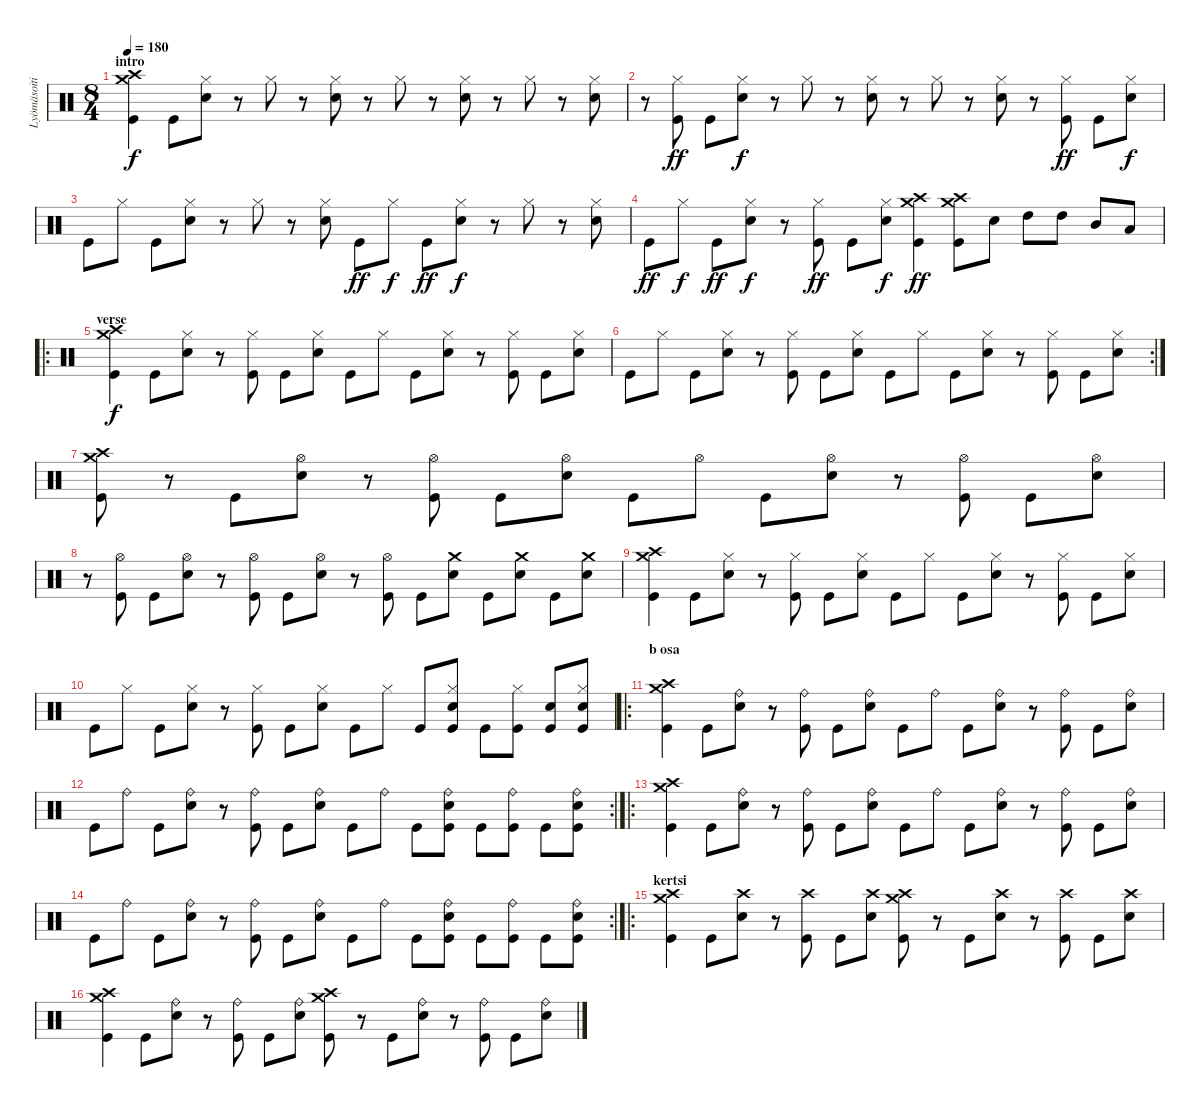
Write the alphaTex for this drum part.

\track ("Lyömäsoitin" "Lyömäsoiti") {instrument percussion}
\staff {score}
\articulation defaults
\ts (8 4)
\section ("" "intro")
\tempo 180
\clef neutral
\ks c
("Crash medium (hit)" "Crash high (hit)" "Kick (hit)").4{dy f} "Kick (hit)".8 ("Hi-Hat (closed)" "Snare (hit) 2").8 r.8 "Hi-Hat (closed)".8 r.8 ("Hi-Hat (closed)" "Snare (hit) 2").8 r.8 "Hi-Hat (closed)".8 r.8 ("Hi-Hat (closed)" "Snare (hit) 2").8 r.8 "Hi-Hat (closed)".8 r.8 ("Hi-Hat (closed)" "Snare (hit) 2").8 |
r.8 ("Hi-Hat (closed)" "Kick (hit)").8{dy ff} "Kick (hit)".8 ("Hi-Hat (closed)" "Snare (hit) 2").8{dy f} r.8 "Hi-Hat (closed)".8 r.8 ("Hi-Hat (closed)" "Snare (hit) 2").8 r.8 "Hi-Hat (closed)".8 r.8 ("Hi-Hat (closed)" "Snare (hit) 2").8 r.8 ("Hi-Hat (closed)" "Kick (hit)").8{dy ff} "Kick (hit)".8 ("Hi-Hat (closed)" "Snare (hit) 2").8{dy f} |
"Kick (hit)".8 "Hi-Hat (closed)".8 "Kick (hit)".8 ("Hi-Hat (closed)" "Snare (hit) 2").8 r.8 "Hi-Hat (closed)".8 r.8 ("Hi-Hat (closed)" "Snare (hit) 2").8 "Kick (hit)".8{dy ff} "Hi-Hat (closed)".8{dy f} "Kick (hit)".8{dy ff} ("Hi-Hat (closed)" "Snare (hit) 2").8{dy f} r.8 "Hi-Hat (closed)".8 r.8 ("Hi-Hat (closed)" "Snare (hit) 2").8 |
"Kick (hit)".8{dy ff} "Hi-Hat (closed)".8{dy f} "Kick (hit)".8{dy ff} ("Hi-Hat (closed)" "Snare (hit) 2").8{dy f} r.8 ("Hi-Hat (closed)" "Kick (hit)").8{dy ff} "Kick (hit)".8 ("Hi-Hat (closed)" "Snare (hit) 2").8{dy f} ("Crash medium (hit)" "Crash high (hit)" "Kick (hit)").4{dy ff} ("Crash medium (hit)" "Crash high (hit)" "Kick (hit)").8 "Snare (hit) 2".8 "High Tom (hit)".8 "High Tom (hit)".8 "Mid Tom (hit)".8 "Low Tom (hit)".8 |
\ro
\section ("" "verse")
("Crash medium (hit)" "Crash high (hit)" "Kick (hit)").4{dy f} "Kick (hit)".8 ("Hi-Hat (closed)" "Snare (hit) 2").8 r.8 ("Hi-Hat (closed)" "Kick (hit)").8 "Kick (hit)".8 ("Hi-Hat (closed)" "Snare (hit) 2").8 "Kick (hit)".8 "Hi-Hat (closed)".8 "Kick (hit)".8 ("Hi-Hat (closed)" "Snare (hit) 2").8 r.8 ("Hi-Hat (closed)" "Kick (hit)").8 "Kick (hit)".8 ("Hi-Hat (closed)" "Snare (hit) 2").8 |
\rc 2 "Kick (hit)".8 "Hi-Hat (closed)".8 "Kick (hit)".8
("Hi-Hat (closed)" "Snare (hit) 2").8 r.8 ("Hi-Hat (closed)" "Kick (hit)").8 "Kick (hit)".8 ("Hi-Hat (closed)" "Snare (hit) 2").8 "Kick (hit)".8 "Hi-Hat (closed)".8 "Kick (hit)".8 ("Hi-Hat (closed)" "Snare (hit) 2").8 r.8 ("Hi-Hat (closed)" "Kick (hit)").8 "Kick (hit)".8 ("Hi-Hat (closed)" "Snare (hit) 2").8 |
("Crash medium (hit)" "Crash high (hit)" "Kick (hit)").8 r.8 "Kick (hit)".8 ("Hi-Hat (open)" "Snare (hit) 2").8 r.8 ("Hi-Hat (open)" "Kick (hit)").8 "Kick (hit)".8 ("Hi-Hat (open)" "Snare (hit) 2").8 "Kick (hit)".8 "Hi-Hat (open)".8 "Kick (hit)".8 ("Hi-Hat (open)" "Snare (hit) 2").8 r.8 ("Hi-Hat (open)" "Kick (hit)").8 "Kick (hit)".8 ("Hi-Hat (open)" "Snare (hit) 2").8 |
r.8 ("Hi-Hat (open)" "Kick (hit)").8 "Kick (hit)".8 ("Hi-Hat (open)" "Snare (hit) 2").8 r.8 ("Hi-Hat (open)" "Kick (hit)").8 "Kick (hit)".8 ("Hi-Hat (open)" "Snare (hit) 2").8 r.8 ("Hi-Hat (open)" "Kick (hit)").8 "Kick (hit)".8 ("Crash medium (hit)" "Snare (hit) 2").8 "Kick (hit)".8 ("Crash medium (hit)" "Snare (hit) 2").8 "Kick (hit)".8 ("Crash medium (hit)" "Snare (hit) 2").8 |
("Crash medium (hit)" "Crash high (hit)" "Kick (hit)").4 "Kick (hit)".8 ("Hi-Hat (closed)" "Snare (hit) 2").8 r.8 ("Hi-Hat (closed)" "Kick (hit)").8 "Kick (hit)".8 ("Hi-Hat (closed)" "Snare (hit) 2").8 "Kick (hit)".8 "Hi-Hat (closed)".8 "Kick (hit)".8 ("Hi-Hat (closed)" "Snare (hit) 2").8 r.8 ("Hi-Hat (closed)" "Kick (hit)").8 "Kick (hit)".8 ("Hi-Hat (closed)" "Snare (hit) 2").8 |
"Kick (hit)".8 "Hi-Hat (closed)".8 "Kick (hit)".8 ("Hi-Hat (closed)" "Snare (hit) 2").8 r.8 ("Hi-Hat (closed)" "Kick (hit)").8 "Kick (hit)".8 ("Hi-Hat (closed)" "Snare (hit) 2").8 "Kick (hit)".8 "Hi-Hat (closed)".8 "Kick (hit)".8 ("Hi-Hat (closed)" "Snare (hit) 2" "Kick (hit)").8 "Kick (hit)".8 ("Hi-Hat (closed)" "Kick (hit)").8 ("Snare (hit) 2" "Kick (hit)").8 ("Hi-Hat (closed)" "Snare (hit) 2" "Kick (hit)").8 |
\ro
\section ("" "b osa")
("Crash medium (hit)" "Crash high (hit)" "Kick (hit)").4 "Kick (hit)".8 ("Ride (bell)" "Snare (hit) 2").8 r.8 ("Ride (bell)" "Kick (hit)").8 "Kick (hit)".8 ("Ride (bell)" "Snare (hit) 2").8 "Kick (hit)".8 "Ride (bell)".8 "Kick (hit)".8 ("Ride (bell)" "Snare (hit) 2").8 r.8 ("Ride (bell)" "Kick (hit)").8 "Kick (hit)".8 ("Ride (bell)" "Snare (hit) 2").8 |
\rc 2 "Kick (hit)".8 "Ride (bell)".8 "Kick (hit)".8
("Ride (bell)" "Snare (hit) 2").8 r.8 ("Ride (bell)" "Kick (hit)").8 "Kick (hit)".8 ("Ride (bell)" "Snare (hit) 2").8 "Kick (hit)".8 "Ride (bell)".8 "Kick (hit)".8 ("Ride (bell)" "Snare (hit) 2" "Kick (hit)").8 "Kick (hit)".8 ("Ride (bell)" "Kick (hit)").8 "Kick (hit)".8 ("Ride (bell)" "Snare (hit) 2" "Kick (hit)").8 |
\ro
("Crash medium (hit)" "Crash high (hit)" "Kick (hit)").4 "Kick (hit)".8 ("Ride (bell)" "Snare (hit) 2").8 r.8 ("Ride (bell)" "Kick (hit)").8 "Kick (hit)".8 ("Ride (bell)" "Snare (hit) 2").8 "Kick (hit)".8 "Ride (bell)".8 "Kick (hit)".8 ("Ride (bell)" "Snare (hit) 2").8 r.8 ("Ride (bell)" "Kick (hit)").8 "Kick (hit)".8 ("Ride (bell)" "Snare (hit) 2").8 |
\rc 2 "Kick (hit)".8 "Ride (bell)".8 "Kick (hit)".8
("Ride (bell)" "Snare (hit) 2").8 r.8 ("Ride (bell)" "Kick (hit)").8 "Kick (hit)".8 ("Ride (bell)" "Snare (hit) 2").8 "Kick (hit)".8 "Ride (bell)".8 "Kick (hit)".8 ("Ride (bell)" "Snare (hit) 2" "Kick (hit)").8 "Kick (hit)".8 ("Ride (bell)" "Kick (hit)").8 "Kick (hit)".8 ("Ride (bell)" "Snare (hit) 2" "Kick (hit)").8 |
\ro
\section ("" "kertsi")
("Crash medium (hit)" "Crash high (hit)" "Kick (hit)").4 "Kick (hit)".8 ("Crash high (hit)" "Snare (hit) 2").8 r.8 ("Crash high (hit)" "Kick (hit)").8 "Kick (hit)".8 ("Crash high (hit)" "Snare (hit) 2").8 ("Crash medium (hit)" "Crash high (hit)" "Kick (hit)").8 r.8 "Kick (hit)".8 ("Crash high (hit)" "Snare (hit) 2").8 r.8 ("Crash high (hit)" "Kick (hit)").8 "Kick (hit)".8 ("Crash high (hit)" "Snare (hit) 2").8 |
("Crash medium (hit)" "Crash high (hit)" "Kick (hit)").4 "Kick (hit)".8 ("Ride (bell)" "Snare (hit) 2").8 r.8 ("Ride (bell)" "Kick (hit)").8 "Kick (hit)".8 ("Ride (bell)" "Snare (hit) 2").8 ("Crash medium (hit)" "Crash high (hit)" "Kick (hit)").8 r.8 "Kick (hit)".8 ("Ride (bell)" "Snare (hit) 2").8 r.8 ("Ride (bell)" "Kick (hit)").8 "Kick (hit)".8 ("Ride (bell)" "Snare (hit) 2").8
